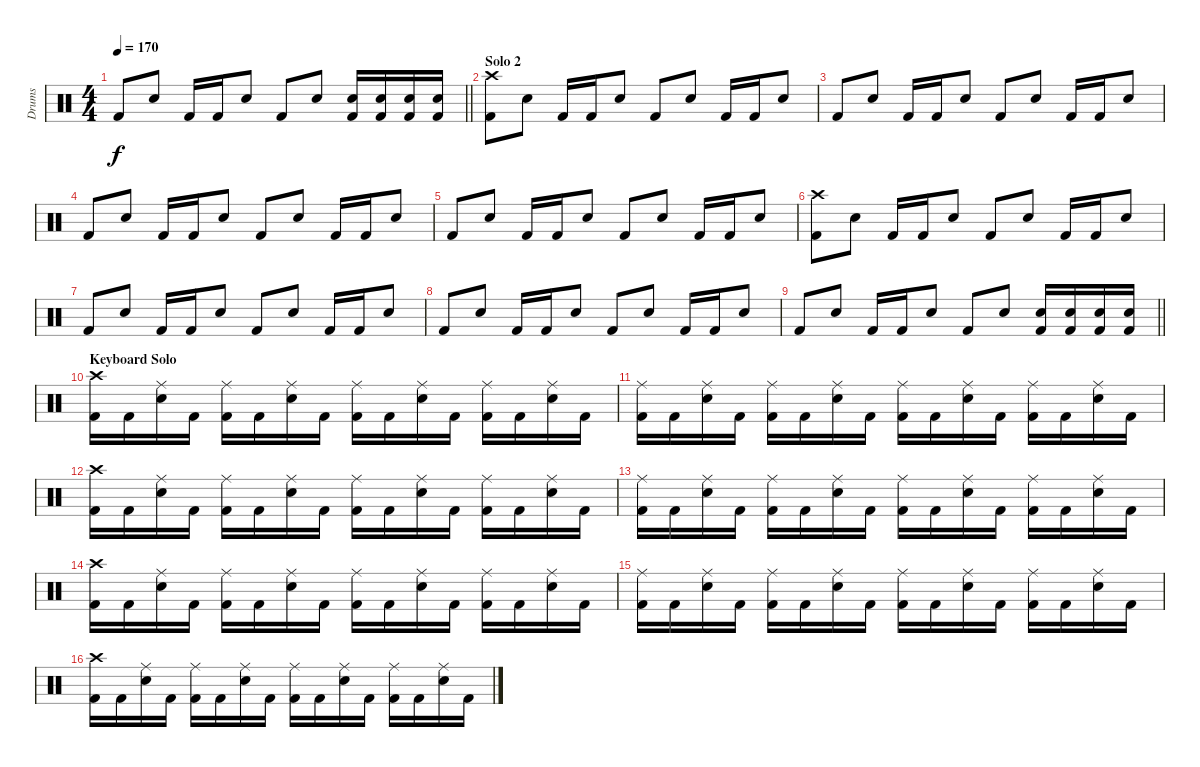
\track ("Drums" "Drums") {instrument percussion}
\staff {score}
\articulation defaults
\ts (4 4)
\tempo 170
\clef neutral
\barLineRight lightlight
\ks c "Kick (hit) 2".8{dy f} "Snare (hit) 2".8 "Kick (hit) 2".16 "Kick (hit) 2".16 "Snare (hit) 2".8 "Kick (hit) 2".8 "Snare (hit) 2".8
("Snare (hit) 2" "Kick (hit) 2").16 ("Snare (hit) 2" "Kick (hit) 2").16 ("Snare (hit) 2" "Kick (hit) 2").16 ("Snare (hit) 2" "Kick (hit) 2").16 |
\section ("" "Solo 2")
("Crash high (hit)" "Kick (hit) 2").8 "Snare (hit) 2".8 "Kick (hit) 2".16 "Kick (hit) 2".16 "Snare (hit) 2".8 "Kick (hit) 2".8 "Snare (hit) 2".8 "Kick (hit) 2".16 "Kick (hit) 2".16 "Snare (hit) 2".8 |
"Kick (hit) 2".8 "Snare (hit) 2".8 "Kick (hit) 2".16 "Kick (hit) 2".16 "Snare (hit) 2".8 "Kick (hit) 2".8 "Snare (hit) 2".8 "Kick (hit) 2".16 "Kick (hit) 2".16 "Snare (hit) 2".8 |
"Kick (hit) 2".8 "Snare (hit) 2".8 "Kick (hit) 2".16 "Kick (hit) 2".16 "Snare (hit) 2".8 "Kick (hit) 2".8 "Snare (hit) 2".8 "Kick (hit) 2".16 "Kick (hit) 2".16 "Snare (hit) 2".8 |
"Kick (hit) 2".8 "Snare (hit) 2".8 "Kick (hit) 2".16 "Kick (hit) 2".16 "Snare (hit) 2".8 "Kick (hit) 2".8 "Snare (hit) 2".8 "Kick (hit) 2".16 "Kick (hit) 2".16 "Snare (hit) 2".8 |
("Crash high (hit)" "Kick (hit) 2").8 "Snare (hit) 2".8 "Kick (hit) 2".16 "Kick (hit) 2".16 "Snare (hit) 2".8 "Kick (hit) 2".8 "Snare (hit) 2".8 "Kick (hit) 2".16 "Kick (hit) 2".16 "Snare (hit) 2".8 |
"Kick (hit) 2".8 "Snare (hit) 2".8 "Kick (hit) 2".16 "Kick (hit) 2".16 "Snare (hit) 2".8 "Kick (hit) 2".8 "Snare (hit) 2".8 "Kick (hit) 2".16 "Kick (hit) 2".16 "Snare (hit) 2".8 |
"Kick (hit) 2".8 "Snare (hit) 2".8 "Kick (hit) 2".16 "Kick (hit) 2".16 "Snare (hit) 2".8 "Kick (hit) 2".8 "Snare (hit) 2".8 "Kick (hit) 2".16 "Kick (hit) 2".16 "Snare (hit) 2".8 |
\barLineRight lightlight "Kick (hit) 2".8 "Snare (hit) 2".8 "Kick (hit) 2".16 "Kick (hit) 2".16 "Snare (hit) 2".8 "Kick (hit) 2".8 "Snare (hit) 2".8
("Snare (hit) 2" "Kick (hit) 2").16 ("Snare (hit) 2" "Kick (hit) 2").16 ("Snare (hit) 2" "Kick (hit) 2").16 ("Snare (hit) 2" "Kick (hit) 2").16 |
\section ("" "Keyboard Solo")
("Crash high (hit)" "Kick (hit) 2").16 "Kick (hit) 2".16 ("Ride (middle)" "Electric Snare (hit)").16 "Kick (hit) 2".16 ("Ride (middle)" "Kick (hit) 2").16 "Kick (hit) 2".16 ("Ride (middle)" "Electric Snare (hit)").16 "Kick (hit) 2".16 ("Ride (middle)" "Kick (hit) 2").16 "Kick (hit) 2".16 ("Ride (middle)" "Electric Snare (hit)").16 "Kick (hit) 2".16 ("Ride (middle)" "Kick (hit) 2").16 "Kick (hit) 2".16 ("Ride (middle)" "Electric Snare (hit)").16 "Kick (hit) 2".16 |
("Ride (middle)" "Kick (hit) 2").16 "Kick (hit) 2".16 ("Ride (middle)" "Electric Snare (hit)").16 "Kick (hit) 2".16 ("Ride (middle)" "Kick (hit) 2").16 "Kick (hit) 2".16 ("Ride (middle)" "Electric Snare (hit)").16 "Kick (hit) 2".16 ("Ride (middle)" "Kick (hit) 2").16 "Kick (hit) 2".16 ("Ride (middle)" "Electric Snare (hit)").16 "Kick (hit) 2".16 ("Ride (middle)" "Kick (hit) 2").16 "Kick (hit) 2".16 ("Ride (middle)" "Electric Snare (hit)").16 "Kick (hit) 2".16 |
("Crash high (hit)" "Kick (hit) 2").16 "Kick (hit) 2".16 ("Ride (middle)" "Electric Snare (hit)").16 "Kick (hit) 2".16 ("Ride (middle)" "Kick (hit) 2").16 "Kick (hit) 2".16 ("Ride (middle)" "Electric Snare (hit)").16 "Kick (hit) 2".16 ("Ride (middle)" "Kick (hit) 2").16 "Kick (hit) 2".16 ("Ride (middle)" "Electric Snare (hit)").16 "Kick (hit) 2".16 ("Ride (middle)" "Kick (hit) 2").16 "Kick (hit) 2".16 ("Ride (middle)" "Electric Snare (hit)").16 "Kick (hit) 2".16 |
("Ride (middle)" "Kick (hit) 2").16 "Kick (hit) 2".16 ("Ride (middle)" "Electric Snare (hit)").16 "Kick (hit) 2".16 ("Ride (middle)" "Kick (hit) 2").16 "Kick (hit) 2".16 ("Ride (middle)" "Electric Snare (hit)").16 "Kick (hit) 2".16 ("Ride (middle)" "Kick (hit) 2").16 "Kick (hit) 2".16 ("Ride (middle)" "Electric Snare (hit)").16 "Kick (hit) 2".16 ("Ride (middle)" "Kick (hit) 2").16 "Kick (hit) 2".16 ("Ride (middle)" "Electric Snare (hit)").16 "Kick (hit) 2".16 |
("Crash high (hit)" "Kick (hit) 2").16 "Kick (hit) 2".16 ("Ride (middle)" "Electric Snare (hit)").16 "Kick (hit) 2".16 ("Ride (middle)" "Kick (hit) 2").16 "Kick (hit) 2".16 ("Ride (middle)" "Electric Snare (hit)").16 "Kick (hit) 2".16 ("Ride (middle)" "Kick (hit) 2").16 "Kick (hit) 2".16 ("Ride (middle)" "Electric Snare (hit)").16 "Kick (hit) 2".16 ("Ride (middle)" "Kick (hit) 2").16 "Kick (hit) 2".16 ("Ride (middle)" "Electric Snare (hit)").16 "Kick (hit) 2".16 |
("Ride (middle)" "Kick (hit) 2").16 "Kick (hit) 2".16 ("Ride (middle)" "Electric Snare (hit)").16 "Kick (hit) 2".16 ("Ride (middle)" "Kick (hit) 2").16 "Kick (hit) 2".16 ("Ride (middle)" "Electric Snare (hit)").16 "Kick (hit) 2".16 ("Ride (middle)" "Kick (hit) 2").16 "Kick (hit) 2".16 ("Ride (middle)" "Electric Snare (hit)").16 "Kick (hit) 2".16 ("Ride (middle)" "Kick (hit) 2").16 "Kick (hit) 2".16 ("Ride (middle)" "Electric Snare (hit)").16 "Kick (hit) 2".16 |
("Crash high (hit)" "Kick (hit) 2").16 "Kick (hit) 2".16 ("Ride (middle)" "Electric Snare (hit)").16 "Kick (hit) 2".16 ("Ride (middle)" "Kick (hit) 2").16 "Kick (hit) 2".16 ("Ride (middle)" "Electric Snare (hit)").16 "Kick (hit) 2".16 ("Ride (middle)" "Kick (hit) 2").16 "Kick (hit) 2".16 ("Ride (middle)" "Electric Snare (hit)").16 "Kick (hit) 2".16 ("Ride (middle)" "Kick (hit) 2").16 "Kick (hit) 2".16 ("Ride (middle)" "Electric Snare (hit)").16 "Kick (hit) 2".16
